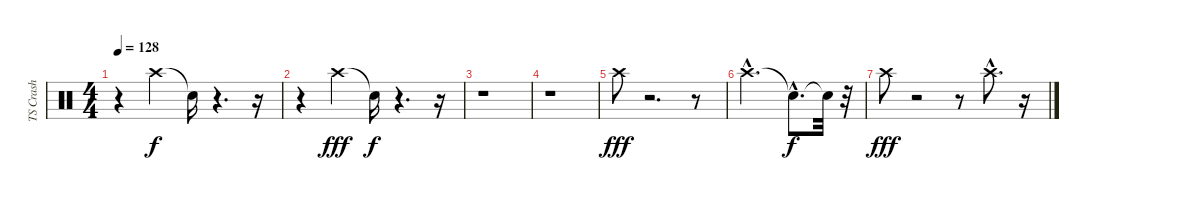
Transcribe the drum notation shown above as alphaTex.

\track ("TS Crash" "TS Crash") {instrument percussion}
\staff {score}
\articulation defaults
\ts (4 4)
\tempo 128
\clef neutral
\ks c
r.4{dy f} "Crash high (hit)".4 "Snare (hit)"{t}.16 r.4{d} r.16 |
r.4 "Crash high (hit)".4{dy fff} "Snare (hit)"{t}.16{dy f} r.4{d} r.16 |
r.1 |
r.1 |
"Crash high (hit)".8{dy fff} r.2{d} r.8 |
"Crash high (hit)"{hac}.2{d} "Snare (hit)"{hac t}.8{d dy f} "Snare (hit)"{t}.32 r.32 |
"Crash high (hit)".8{dy fff} r.2 r.8 "Crash high (hit)"{hac}.8{d} r.16
